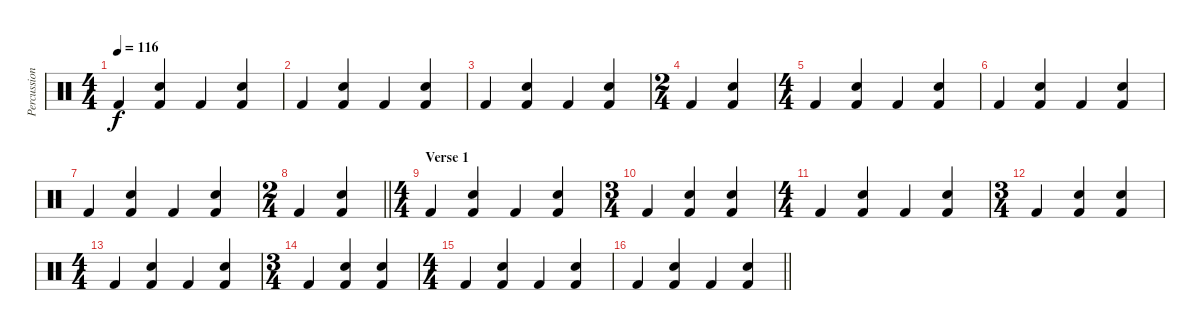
\track ("Percussion" "Percussion") {instrument percussion}
\staff {score}
\articulation defaults
\ts (4 4)
\tempo 116
\clef neutral
\ks c "Kick (hit) 2".4{dy f}
("Hand Clap (hit)" "Kick (hit) 2").4 "Kick (hit) 2".4 ("Hand Clap (hit)" "Kick (hit) 2").4 |
"Kick (hit) 2".4 ("Hand Clap (hit)" "Kick (hit) 2").4 "Kick (hit) 2".4 ("Hand Clap (hit)" "Kick (hit) 2").4 |
"Kick (hit) 2".4 ("Hand Clap (hit)" "Kick (hit) 2").4 "Kick (hit) 2".4 ("Hand Clap (hit)" "Kick (hit) 2").4 |
\ts (2 4)
"Kick (hit) 2".4 ("Hand Clap (hit)" "Kick (hit) 2").4 |
\ts (4 4)
"Kick (hit) 2".4 ("Hand Clap (hit)" "Kick (hit) 2").4 "Kick (hit) 2".4 ("Hand Clap (hit)" "Kick (hit) 2").4 |
"Kick (hit) 2".4 ("Hand Clap (hit)" "Kick (hit) 2").4 "Kick (hit) 2".4 ("Hand Clap (hit)" "Kick (hit) 2").4 |
"Kick (hit) 2".4 ("Hand Clap (hit)" "Kick (hit) 2").4 "Kick (hit) 2".4 ("Hand Clap (hit)" "Kick (hit) 2").4 |
\ts (2 4)
\barLineRight lightlight "Kick (hit) 2".4
("Hand Clap (hit)" "Kick (hit) 2").4 |
\ts (4 4)
\section ("" "Verse 1")
"Kick (hit) 2".4 ("Hand Clap (hit)" "Kick (hit) 2").4 "Kick (hit) 2".4 ("Hand Clap (hit)" "Kick (hit) 2").4 |
\ts (3 4)
"Kick (hit) 2".4 ("Hand Clap (hit)" "Kick (hit) 2").4 ("Hand Clap (hit)" "Kick (hit) 2").4 |
\ts (4 4)
"Kick (hit) 2".4 ("Hand Clap (hit)" "Kick (hit) 2").4 "Kick (hit) 2".4 ("Hand Clap (hit)" "Kick (hit) 2").4 |
\ts (3 4)
"Kick (hit) 2".4 ("Hand Clap (hit)" "Kick (hit) 2").4 ("Hand Clap (hit)" "Kick (hit) 2").4 |
\ts (4 4)
"Kick (hit) 2".4 ("Hand Clap (hit)" "Kick (hit) 2").4 "Kick (hit) 2".4 ("Hand Clap (hit)" "Kick (hit) 2").4 |
\ts (3 4)
"Kick (hit) 2".4 ("Hand Clap (hit)" "Kick (hit) 2").4 ("Hand Clap (hit)" "Kick (hit) 2").4 |
\ts (4 4)
"Kick (hit) 2".4 ("Hand Clap (hit)" "Kick (hit) 2").4 "Kick (hit) 2".4 ("Hand Clap (hit)" "Kick (hit) 2").4 |
\barLineRight lightlight "Kick (hit) 2".4
("Hand Clap (hit)" "Kick (hit) 2").4 "Kick (hit) 2".4 ("Hand Clap (hit)" "Kick (hit) 2").4
